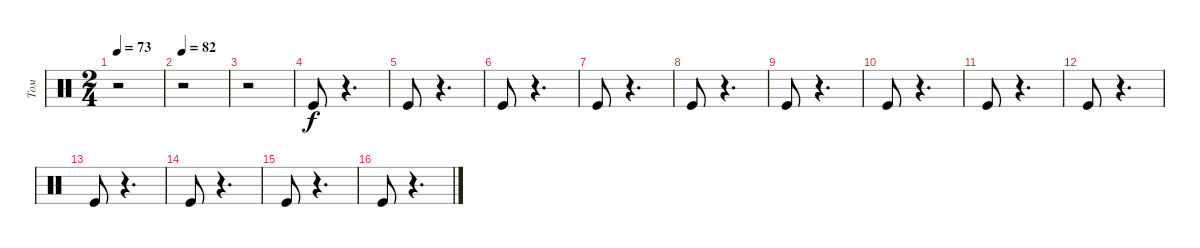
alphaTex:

\track ("Том" "Том") {instrument percussion}
\staff {score}
\articulation defaults
\ts (2 4)
\tempo 73
\clef neutral
\ks c
r.2{dy f} |
\tempo 82
r.2 |
r.2 |
"Kick (hit)".8 r.4{d} |
"Kick (hit)".8 r.4{d} |
"Kick (hit)".8 r.4{d} |
"Kick (hit)".8 r.4{d} |
"Kick (hit)".8 r.4{d} |
"Kick (hit)".8 r.4{d} |
"Kick (hit)".8 r.4{d} |
"Kick (hit)".8 r.4{d} |
"Kick (hit)".8 r.4{d} |
"Kick (hit)".8 r.4{d} |
"Kick (hit)".8 r.4{d} |
"Kick (hit)".8 r.4{d} |
"Kick (hit)".8 r.4{d}
